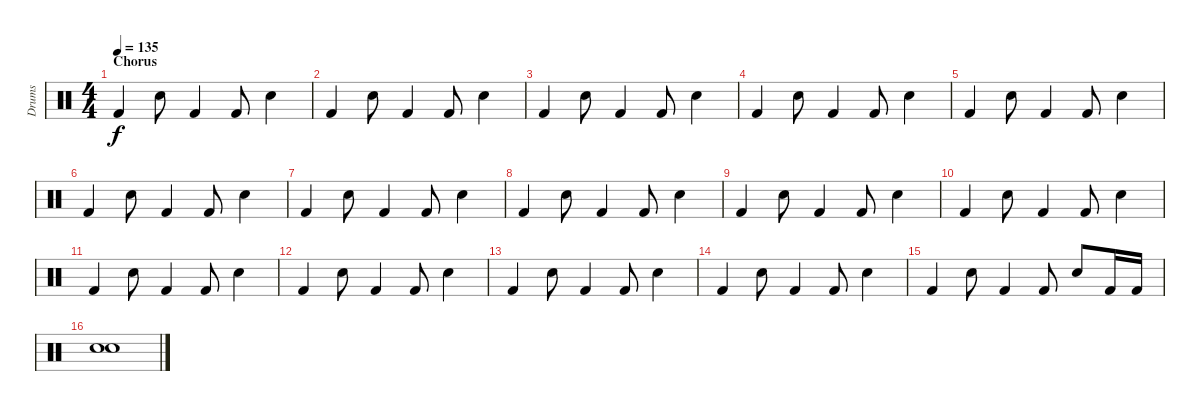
\track ("Drums" "Drums") {instrument percussion}
\staff {score}
\articulation defaults
\ts (4 4)
\section ("" "Chorus")
\tempo 135
\clef neutral
\ks c "Kick (hit) 2".4{dy f} "Electric Snare (hit)".8 "Kick (hit) 2".4 "Kick (hit) 2".8 "Electric Snare (hit)".4
|
"Kick (hit) 2".4 "Electric Snare (hit)".8 "Kick (hit) 2".4 "Kick (hit) 2".8 "Electric Snare (hit)".4 |
"Kick (hit) 2".4 "Electric Snare (hit)".8 "Kick (hit) 2".4 "Kick (hit) 2".8 "Electric Snare (hit)".4 |
"Kick (hit) 2".4 "Electric Snare (hit)".8 "Kick (hit) 2".4 "Kick (hit) 2".8 "Electric Snare (hit)".4 |
"Kick (hit) 2".4 "Electric Snare (hit)".8 "Kick (hit) 2".4 "Kick (hit) 2".8 "Electric Snare (hit)".4 |
"Kick (hit) 2".4 "Electric Snare (hit)".8 "Kick (hit) 2".4 "Kick (hit) 2".8 "Electric Snare (hit)".4 |
"Kick (hit) 2".4 "Electric Snare (hit)".8 "Kick (hit) 2".4 "Kick (hit) 2".8 "Electric Snare (hit)".4 |
"Kick (hit) 2".4 "Electric Snare (hit)".8 "Kick (hit) 2".4 "Kick (hit) 2".8 "Electric Snare (hit)".4 |
"Kick (hit) 2".4 "Electric Snare (hit)".8 "Kick (hit) 2".4 "Kick (hit) 2".8 "Electric Snare (hit)".4 |
"Kick (hit) 2".4 "Electric Snare (hit)".8 "Kick (hit) 2".4 "Kick (hit) 2".8 "Electric Snare (hit)".4 |
"Kick (hit) 2".4 "Electric Snare (hit)".8 "Kick (hit) 2".4 "Kick (hit) 2".8 "Electric Snare (hit)".4 |
"Kick (hit) 2".4 "Electric Snare (hit)".8 "Kick (hit) 2".4 "Kick (hit) 2".8 "Electric Snare (hit)".4 |
"Kick (hit) 2".4 "Electric Snare (hit)".8 "Kick (hit) 2".4 "Kick (hit) 2".8 "Electric Snare (hit)".4 |
"Kick (hit) 2".4 "Electric Snare (hit)".8 "Kick (hit) 2".4 "Kick (hit) 2".8 "Electric Snare (hit)".4 |
"Kick (hit) 2".4 "Electric Snare (hit)".8 "Kick (hit) 2".4 "Kick (hit) 2".8 "Electric Snare (hit)".8 "Kick (hit) 2".16 "Kick (hit) 2".16 |
("Electric Snare (hit)" "Electric Snare (hit)").1
